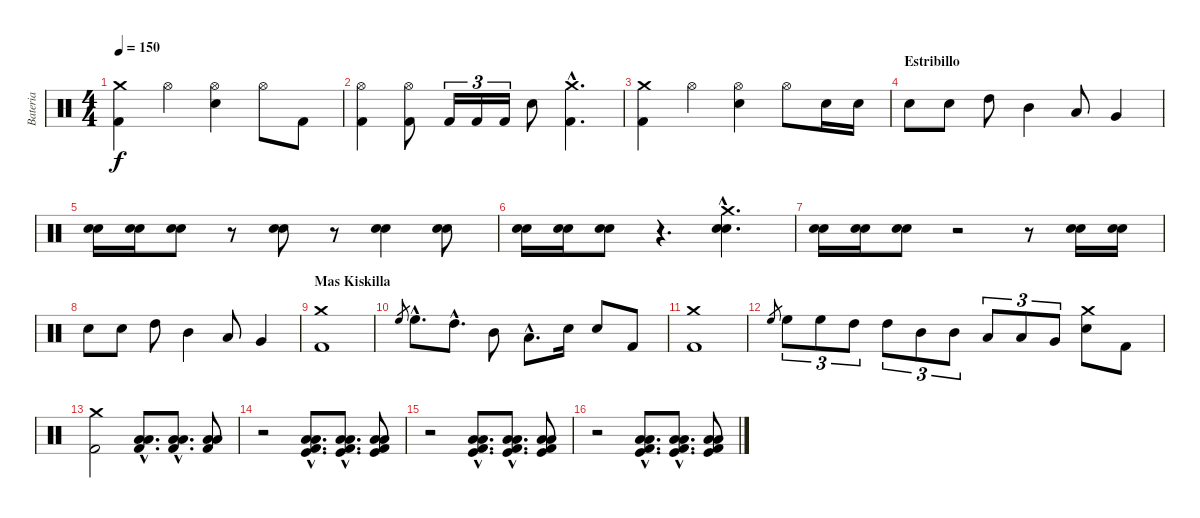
\track ("Bateria" "Bateria") {instrument percussion}
\staff {score}
\articulation defaults
\ts (4 4)
\tempo 150
\clef neutral
\ks c
("Crash medium (hit)" "Kick (hit) 2").4{dy f} "Hi-Hat (open)".4 ("Hi-Hat (open)" "Snare (hit) 2").4 "Hi-Hat (open)".8 "Kick (hit) 2".8 |
("Hi-Hat (open)" "Kick (hit) 2").4 ("Hi-Hat (open)" "Kick (hit) 2").8 "Kick (hit) 2".16{tu (3 2)} "Kick (hit) 2".16{tu (3 2)} "Kick (hit) 2".16{tu (3 2)} "Snare (hit) 2".8 ("Kick (hit) 2"{hac} "Crash medium (hit)"{hac}).4{d} |
("Crash medium (hit)" "Kick (hit) 2").4 "Hi-Hat (open)".4 ("Hi-Hat (open)" "Snare (hit) 2").4 "Hi-Hat (open)".8 "Electric Snare (hit)".16 "Electric Snare (hit)".16 |
\section ("" "Estribillo")
"Electric Snare (hit)".8 "Electric Snare (hit)".8 "High Tom (hit)".8 "Mid Tom (hit)".4 "Low Tom (hit)".8 "Very Low Tom (hit)".4 |
("Electric Snare (hit)" "Snare (hit) 2").16 ("Electric Snare (hit)" "Snare (hit) 2").16 ("Electric Snare (hit)" "Snare (hit) 2").8 r.8 ("Electric Snare (hit)" "Snare (hit) 2").8 r.8 ("Electric Snare (hit)" "Snare (hit) 2").4 ("Electric Snare (hit)" "Snare (hit) 2").8 |
("Electric Snare (hit)" "Snare (hit) 2").16 ("Electric Snare (hit)" "Snare (hit) 2").16 ("Electric Snare (hit)" "Snare (hit) 2").8 r.4{d} ("Electric Snare (hit)"{hac} "Snare (hit) 2"{hac} "Crash medium (hit)"{hac}).4{d} |
("Electric Snare (hit)" "Snare (hit) 2").16 ("Electric Snare (hit)" "Snare (hit) 2").16 ("Electric Snare (hit)" "Snare (hit) 2").8 r.2 r.8 ("Snare (hit) 2" "Electric Snare (hit)").16 ("Snare (hit) 2" "Electric Snare (hit)").16 |
"Electric Snare (hit)".8 "Electric Snare (hit)".8 "High Tom (hit)".8 "Mid Tom (hit)".4 "Low Tom (hit)".8 "Very Low Tom (hit)".4 |
\section ("" "Mas Kiskilla")
("Kick (hit) 2" "Crash medium (hit)").1 |
"High Floor Tom (hit)".8{gr} "High Floor Tom (hit)"{hac}.8{d} "High Tom (hit)"{hac}.8{d} "Mid Tom (hit)".8 "Low Tom (hit)"{hac}.8{d} "Snare (hit) 2".16 "Snare (hit) 2".8 "Kick (hit) 2".8 |
("Kick (hit) 2" "Crash medium (hit)").1 |
"High Floor Tom (hit)".8{gr} "High Floor Tom (hit)".8{tu (3 2)} "High Floor Tom (hit)".8{tu (3 2)} "High Tom (hit)".8{tu (3 2)} "High Tom (hit)".8{tu (3 2)} "Mid Tom (hit)".8{tu (3 2)} "Mid Tom (hit)".8{tu (3 2)} "Low Tom (hit)".8{tu (3 2)} "Low Tom (hit)".8{tu (3 2)} "Very Low Tom (hit)".8{tu (3 2)} ("Crash medium (hit)" "Snare (hit) 2").8 "Kick (hit) 2".8 |
("Crash medium (hit)" "Kick (hit) 2").2 ("Low Floor Tom (hit)"{hac} "Kick (hit) 2"{hac} "Low Tom (hit)"{hac}).8{d} ("Low Floor Tom (hit)"{hac} "Kick (hit) 2"{hac} "Low Tom (hit)"{hac}).8{d} ("Low Floor Tom (hit)" "Kick (hit) 2" "Low Tom (hit)").8 |
r.2 ("Kick (hit)"{hac} "Low Floor Tom (hit)"{hac} "Kick (hit) 2"{hac} "Low Tom (hit)"{hac}).8{d} ("Kick (hit)"{hac} "Low Floor Tom (hit)"{hac} "Kick (hit) 2"{hac} "Low Tom (hit)"{hac}).8{d} ("Kick (hit)" "Low Floor Tom (hit)" "Kick (hit) 2" "Low Tom (hit)").8 |
r.2 ("Kick (hit)"{hac} "Low Floor Tom (hit)"{hac} "Kick (hit) 2"{hac} "Low Tom (hit)"{hac}).8{d} ("Kick (hit)"{hac} "Low Floor Tom (hit)"{hac} "Kick (hit) 2"{hac} "Low Tom (hit)"{hac}).8{d} ("Kick (hit)" "Low Floor Tom (hit)" "Kick (hit) 2" "Low Tom (hit)").8 |
r.2 ("Kick (hit)"{hac} "Low Floor Tom (hit)"{hac} "Kick (hit) 2"{hac} "Low Tom (hit)"{hac}).8{d} ("Kick (hit)"{hac} "Low Floor Tom (hit)"{hac} "Kick (hit) 2"{hac} "Low Tom (hit)"{hac}).8{d} ("Kick (hit)" "Low Floor Tom (hit)" "Kick (hit) 2" "Low Tom (hit)").8
